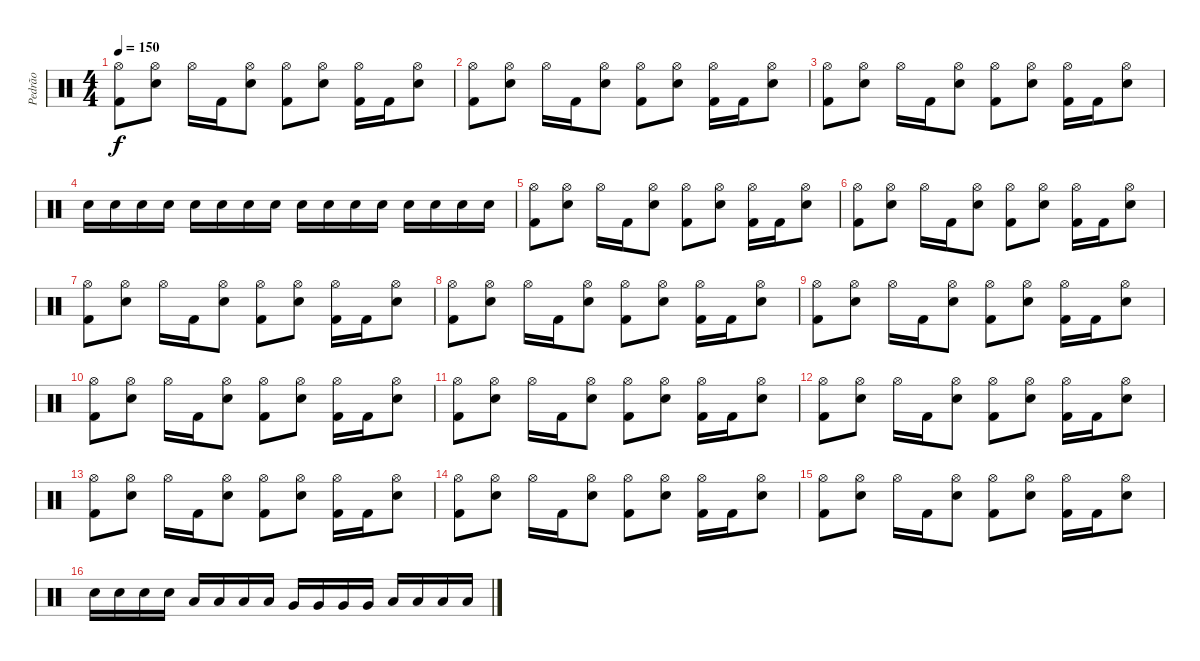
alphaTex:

\track ("Pedrão" "Pedrão") {instrument percussion}
\staff {score}
\articulation defaults
\ts (4 4)
\tempo 150
\clef neutral
\ks c
("Hi-Hat (open)" "Kick (hit) 2").8{dy f} ("Hi-Hat (open)" "Snare (hit) 2").8 "Hi-Hat (open)".16 "Kick (hit) 2".16 ("Hi-Hat (open)" "Snare (hit) 2").8 ("Hi-Hat (open)" "Kick (hit) 2").8 ("Hi-Hat (open)" "Snare (hit) 2").8 ("Hi-Hat (open)" "Kick (hit) 2").16 "Kick (hit) 2".16 ("Hi-Hat (open)" "Snare (hit) 2").8 |
("Hi-Hat (open)" "Kick (hit) 2").8 ("Hi-Hat (open)" "Snare (hit) 2").8 "Hi-Hat (open)".16 "Kick (hit) 2".16 ("Hi-Hat (open)" "Snare (hit) 2").8 ("Hi-Hat (open)" "Kick (hit) 2").8 ("Hi-Hat (open)" "Snare (hit) 2").8 ("Hi-Hat (open)" "Kick (hit) 2").16 "Kick (hit) 2".16 ("Hi-Hat (open)" "Snare (hit) 2").8 |
("Hi-Hat (open)" "Kick (hit) 2").8 ("Hi-Hat (open)" "Snare (hit) 2").8 "Hi-Hat (open)".16 "Kick (hit) 2".16 ("Hi-Hat (open)" "Snare (hit) 2").8 ("Hi-Hat (open)" "Kick (hit) 2").8 ("Hi-Hat (open)" "Snare (hit) 2").8 ("Hi-Hat (open)" "Kick (hit) 2").16 "Kick (hit) 2".16 ("Hi-Hat (open)" "Snare (hit) 2").8 |
"Snare (hit) 2".16 "Snare (hit) 2".16 "Snare (hit) 2".16 "Snare (hit) 2".16 "Snare (hit) 2".16 "Snare (hit) 2".16 "Snare (hit) 2".16 "Snare (hit) 2".16 "Snare (hit) 2".16 "Snare (hit) 2".16 "Snare (hit) 2".16 "Snare (hit) 2".16 "Snare (hit) 2".16 "Snare (hit) 2".16 "Snare (hit) 2".16 "Snare (hit) 2".16 |
("Hi-Hat (open)" "Kick (hit) 2").8 ("Hi-Hat (open)" "Snare (hit) 2").8 "Hi-Hat (open)".16 "Kick (hit) 2".16 ("Hi-Hat (open)" "Snare (hit) 2").8 ("Hi-Hat (open)" "Kick (hit) 2").8 ("Hi-Hat (open)" "Snare (hit) 2").8 ("Hi-Hat (open)" "Kick (hit) 2").16 "Kick (hit) 2".16 ("Hi-Hat (open)" "Snare (hit) 2").8 |
("Hi-Hat (open)" "Kick (hit) 2").8 ("Hi-Hat (open)" "Snare (hit) 2").8 "Hi-Hat (open)".16 "Kick (hit) 2".16 ("Hi-Hat (open)" "Snare (hit) 2").8 ("Hi-Hat (open)" "Kick (hit) 2").8 ("Hi-Hat (open)" "Snare (hit) 2").8 ("Hi-Hat (open)" "Kick (hit) 2").16 "Kick (hit) 2".16 ("Hi-Hat (open)" "Snare (hit) 2").8 |
("Hi-Hat (open)" "Kick (hit) 2").8 ("Hi-Hat (open)" "Snare (hit) 2").8 "Hi-Hat (open)".16 "Kick (hit) 2".16 ("Hi-Hat (open)" "Snare (hit) 2").8 ("Hi-Hat (open)" "Kick (hit) 2").8 ("Hi-Hat (open)" "Snare (hit) 2").8 ("Hi-Hat (open)" "Kick (hit) 2").16 "Kick (hit) 2".16 ("Hi-Hat (open)" "Snare (hit) 2").8 |
("Hi-Hat (open)" "Kick (hit) 2").8 ("Hi-Hat (open)" "Snare (hit) 2").8 "Hi-Hat (open)".16 "Kick (hit) 2".16 ("Hi-Hat (open)" "Snare (hit) 2").8 ("Hi-Hat (open)" "Kick (hit) 2").8 ("Hi-Hat (open)" "Snare (hit) 2").8 ("Hi-Hat (open)" "Kick (hit) 2").16 "Kick (hit) 2".16 ("Hi-Hat (open)" "Snare (hit) 2").8 |
("Hi-Hat (open)" "Kick (hit) 2").8 ("Hi-Hat (open)" "Snare (hit) 2").8 "Hi-Hat (open)".16 "Kick (hit) 2".16 ("Hi-Hat (open)" "Snare (hit) 2").8 ("Hi-Hat (open)" "Kick (hit) 2").8 ("Hi-Hat (open)" "Snare (hit) 2").8 ("Hi-Hat (open)" "Kick (hit) 2").16 "Kick (hit) 2".16 ("Hi-Hat (open)" "Snare (hit) 2").8 |
("Hi-Hat (open)" "Kick (hit) 2").8 ("Hi-Hat (open)" "Snare (hit) 2").8 "Hi-Hat (open)".16 "Kick (hit) 2".16 ("Hi-Hat (open)" "Snare (hit) 2").8 ("Hi-Hat (open)" "Kick (hit) 2").8 ("Hi-Hat (open)" "Snare (hit) 2").8 ("Hi-Hat (open)" "Kick (hit) 2").16 "Kick (hit) 2".16 ("Hi-Hat (open)" "Snare (hit) 2").8 |
("Hi-Hat (open)" "Kick (hit) 2").8 ("Hi-Hat (open)" "Snare (hit) 2").8 "Hi-Hat (open)".16 "Kick (hit) 2".16 ("Hi-Hat (open)" "Snare (hit) 2").8 ("Hi-Hat (open)" "Kick (hit) 2").8 ("Hi-Hat (open)" "Snare (hit) 2").8 ("Hi-Hat (open)" "Kick (hit) 2").16 "Kick (hit) 2".16 ("Hi-Hat (open)" "Snare (hit) 2").8 |
("Hi-Hat (open)" "Kick (hit) 2").8 ("Hi-Hat (open)" "Snare (hit) 2").8 "Hi-Hat (open)".16 "Kick (hit) 2".16 ("Hi-Hat (open)" "Snare (hit) 2").8 ("Hi-Hat (open)" "Kick (hit) 2").8 ("Hi-Hat (open)" "Snare (hit) 2").8 ("Hi-Hat (open)" "Kick (hit) 2").16 "Kick (hit) 2".16 ("Hi-Hat (open)" "Snare (hit) 2").8 |
("Hi-Hat (open)" "Kick (hit) 2").8 ("Hi-Hat (open)" "Snare (hit) 2").8 "Hi-Hat (open)".16 "Kick (hit) 2".16 ("Hi-Hat (open)" "Snare (hit) 2").8 ("Hi-Hat (open)" "Kick (hit) 2").8 ("Hi-Hat (open)" "Snare (hit) 2").8 ("Hi-Hat (open)" "Kick (hit) 2").16 "Kick (hit) 2".16 ("Hi-Hat (open)" "Snare (hit) 2").8 |
("Hi-Hat (open)" "Kick (hit) 2").8 ("Hi-Hat (open)" "Snare (hit) 2").8 "Hi-Hat (open)".16 "Kick (hit) 2".16 ("Hi-Hat (open)" "Snare (hit) 2").8 ("Hi-Hat (open)" "Kick (hit) 2").8 ("Hi-Hat (open)" "Snare (hit) 2").8 ("Hi-Hat (open)" "Kick (hit) 2").16 "Kick (hit) 2".16 ("Hi-Hat (open)" "Snare (hit) 2").8 |
("Hi-Hat (open)" "Kick (hit) 2").8 ("Hi-Hat (open)" "Snare (hit) 2").8 "Hi-Hat (open)".16 "Kick (hit) 2".16 ("Hi-Hat (open)" "Snare (hit) 2").8 ("Hi-Hat (open)" "Kick (hit) 2").8 ("Hi-Hat (open)" "Snare (hit) 2").8 ("Hi-Hat (open)" "Kick (hit) 2").16 "Kick (hit) 2".16 ("Hi-Hat (open)" "Snare (hit) 2").8 |
"Snare (hit) 2".16 "Snare (hit) 2".16 "Snare (hit) 2".16 "Snare (hit) 2".16 "Low Tom (hit)".16 "Low Tom (hit)".16 "Low Tom (hit)".16 "Low Tom (hit)".16 "Very Low Tom (hit)".16 "Very Low Tom (hit)".16 "Very Low Tom (hit)".16 "Very Low Tom (hit)".16 "Low Floor Tom (hit)".16 "Low Floor Tom (hit)".16 "Low Floor Tom (hit)".16 "Low Floor Tom (hit)".16
